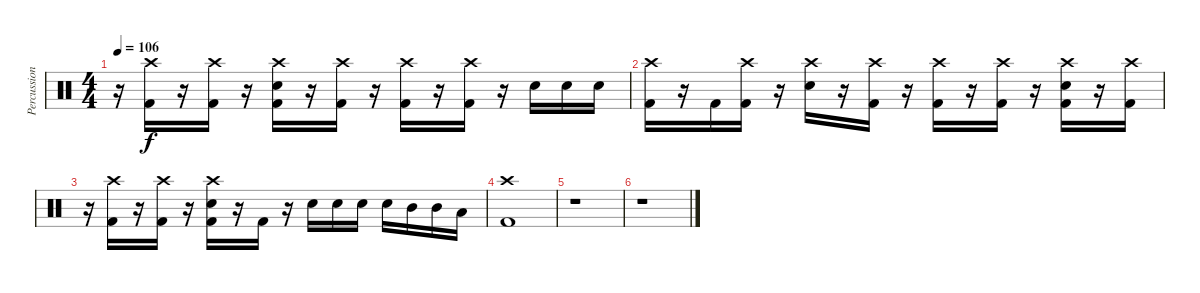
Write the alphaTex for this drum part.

\track ("Percussion" "Percussion") {instrument percussion}
\staff {score}
\articulation defaults
\ts (4 4)
\tempo 106
\clef neutral
\ks c
r.16{dy f} ("Crash high (hit)" "Kick (hit) 2").16 r.16 ("Crash high (hit)" "Kick (hit) 2").16 r.16 ("Crash high (hit)" "Snare (hit) 2" "Kick (hit) 2").16 r.16 ("Crash high (hit)" "Kick (hit) 2").16 r.16 ("Crash high (hit)" "Kick (hit) 2").16 r.16 ("Crash high (hit)" "Kick (hit) 2").16 r.16 "Snare (hit) 2".16 "Snare (hit) 2".16 "Snare (hit) 2".16 |
("Crash high (hit)" "Kick (hit) 2").16 r.16 "Kick (hit) 2".16 ("Crash high (hit)" "Kick (hit) 2").16 r.16 ("Crash high (hit)" "Snare (hit) 2").16 r.16 ("Crash high (hit)" "Kick (hit) 2").16 r.16 ("Crash high (hit)" "Kick (hit) 2").16 r.16 ("Crash high (hit)" "Kick (hit) 2").16 r.16 ("Crash high (hit)" "Snare (hit) 2" "Kick (hit) 2").16 r.16 ("Crash high (hit)" "Kick (hit) 2").16 |
r.16 ("Crash high (hit)" "Kick (hit) 2").16 r.16 ("Crash high (hit)" "Kick (hit) 2").16 r.16 ("Crash high (hit)" "Snare (hit) 2" "Kick (hit) 2").16 r.16 "Kick (hit) 2".16 r.16 "Snare (hit) 2".16 "Snare (hit) 2".16 "Snare (hit) 2".16 "Snare (hit) 2".16 "Mid Tom (hit)".16 "Mid Tom (hit)".16 "Low Tom (hit)".16 |
("Crash high (hit)" "Kick (hit) 2").1 |
r.1 |
r.1
